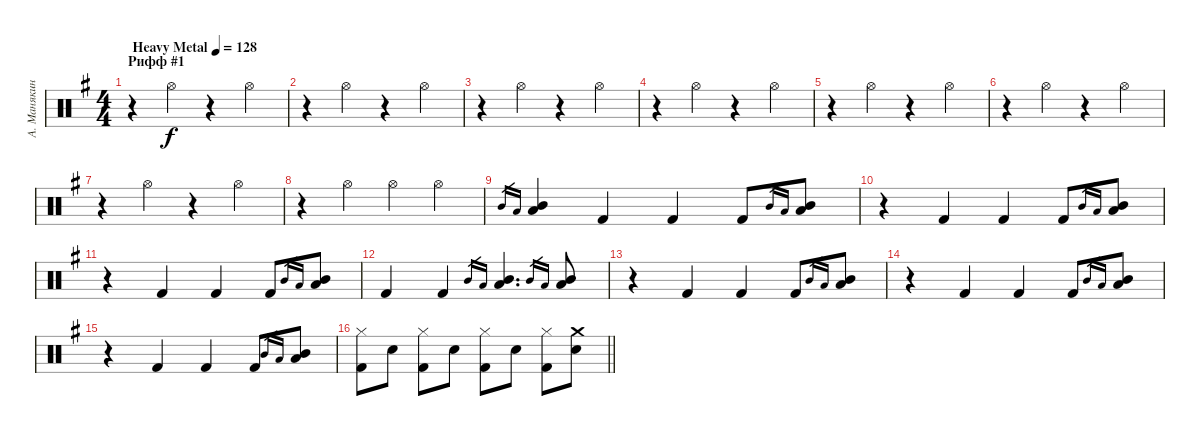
\track ("А. Манякин" "А. Манякин") {instrument percussion}
\staff {score}
\articulation defaults
\ts (4 4)
\section ("" "Рифф #1")
\tempo (128 "Heavy Metal")
\clef neutral
\ks g
r.4{dy f} "Hi-Hat (open)".4 r.4 "Hi-Hat (open)".4 |
r.4 "Hi-Hat (open)".4 r.4 "Hi-Hat (open)".4 |
r.4 "Hi-Hat (open)".4 r.4 "Hi-Hat (open)".4 |
r.4 "Hi-Hat (open)".4 r.4 "Hi-Hat (open)".4 |
r.4 "Hi-Hat (open)".4 r.4 "Hi-Hat (open)".4 |
r.4 "Hi-Hat (open)".4 r.4 "Hi-Hat (open)".4 |
r.4 "Hi-Hat (open)".4 r.4 "Hi-Hat (open)".4 |
r.4 "Hi-Hat (open)".4 "Hi-Hat (open)".4 "Hi-Hat (open)".4 |
"Mid Tom (hit)".16{gr} "Low Tom (hit)".16{gr} ("Mid Tom (hit)" "Low Tom (hit)").4 "Kick (hit) 2".4 "Kick (hit) 2".4 "Kick (hit) 2".8 "Mid Tom (hit)".16{gr} "Low Tom (hit)".16{gr} ("Mid Tom (hit)" "Low Tom (hit)").8 |
r.4 "Kick (hit) 2".4 "Kick (hit) 2".4 "Kick (hit) 2".8 "Mid Tom (hit)".16{gr} "Low Tom (hit)".16{gr} ("Mid Tom (hit)" "Low Tom (hit)").8 |
r.4 "Kick (hit) 2".4 "Kick (hit) 2".4 "Kick (hit) 2".8 "Mid Tom (hit)".16{gr} "Low Tom (hit)".16{gr} ("Mid Tom (hit)" "Low Tom (hit)").8 |
"Kick (hit) 2".4 "Kick (hit) 2".4 "Mid Tom (hit)".16{gr} "Low Tom (hit)".16{gr} ("Mid Tom (hit)" "Low Tom (hit)").4{d} "Mid Tom (hit)".16{gr} "Low Tom (hit)".16{gr} ("Mid Tom (hit)" "Low Tom (hit)").8 |
r.4 "Kick (hit) 2".4 "Kick (hit) 2".4 "Kick (hit) 2".8 "Mid Tom (hit)".16{gr} "Low Tom (hit)".16{gr} ("Mid Tom (hit)" "Low Tom (hit)").8 |
r.4 "Kick (hit) 2".4 "Kick (hit) 2".4 "Kick (hit) 2".8 "Mid Tom (hit)".16{gr} "Low Tom (hit)".16{gr} ("Mid Tom (hit)" "Low Tom (hit)").8 |
r.4 "Kick (hit) 2".4 "Kick (hit) 2".4 "Kick (hit) 2".8 "Mid Tom (hit)".16{gr} "Low Tom (hit)".16{gr} ("Mid Tom (hit)" "Low Tom (hit)").8 |
\barLineRight lightlight
("Kick (hit) 2" "Hi-Hat (closed)").8 "Electric Snare (hit)".8 ("Kick (hit) 2" "Hi-Hat (closed)").8 "Electric Snare (hit)".8 ("Kick (hit) 2" "Hi-Hat (closed)").8 "Electric Snare (hit)".8 ("Kick (hit) 2" "Hi-Hat (closed)").8 ("Electric Snare (hit)" "Crash medium (hit)").8
